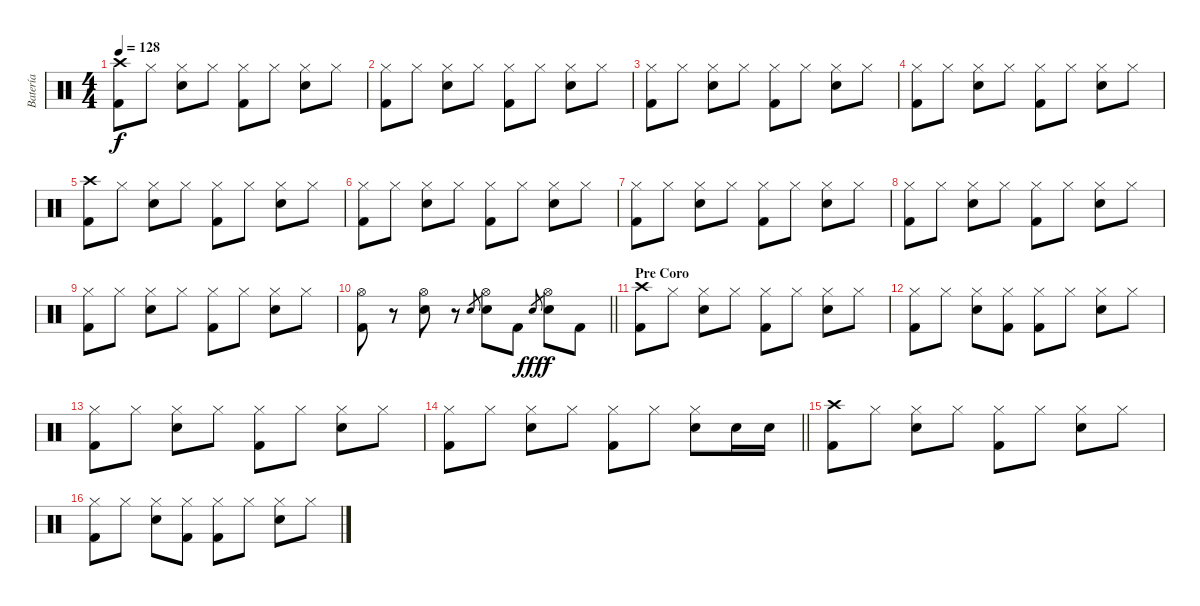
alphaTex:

\track ("Batería" "Batería") {instrument percussion}
\staff {score}
\articulation defaults
\ts (4 4)
\tempo 128
\clef neutral
\ks c
("Crash high (hit)" "Kick (hit) 2").8{dy f} "Hi-Hat (closed)".8 ("Hi-Hat (closed)" "Electric Snare (hit)").8 "Hi-Hat (closed)".8 ("Hi-Hat (closed)" "Kick (hit) 2").8 "Hi-Hat (closed)".8 ("Hi-Hat (closed)" "Electric Snare (hit)").8 "Hi-Hat (closed)".8 |
("Hi-Hat (closed)" "Kick (hit) 2").8 "Hi-Hat (closed)".8 ("Hi-Hat (closed)" "Electric Snare (hit)").8 "Hi-Hat (closed)".8 ("Hi-Hat (closed)" "Kick (hit) 2").8 "Hi-Hat (closed)".8 ("Hi-Hat (closed)" "Electric Snare (hit)").8 "Hi-Hat (closed)".8 |
("Hi-Hat (closed)" "Kick (hit) 2").8 "Hi-Hat (closed)".8 ("Hi-Hat (closed)" "Electric Snare (hit)").8 "Hi-Hat (closed)".8 ("Hi-Hat (closed)" "Kick (hit) 2").8 "Hi-Hat (closed)".8 ("Hi-Hat (closed)" "Electric Snare (hit)").8 "Hi-Hat (closed)".8 |
("Hi-Hat (closed)" "Kick (hit) 2").8 "Hi-Hat (closed)".8 ("Hi-Hat (closed)" "Electric Snare (hit)").8 "Hi-Hat (closed)".8 ("Hi-Hat (closed)" "Kick (hit) 2").8 "Hi-Hat (closed)".8 ("Hi-Hat (closed)" "Electric Snare (hit)").8 "Hi-Hat (closed)".8 |
("Crash high (hit)" "Kick (hit) 2").8 "Hi-Hat (closed)".8 ("Hi-Hat (closed)" "Electric Snare (hit)").8 "Hi-Hat (closed)".8 ("Hi-Hat (closed)" "Kick (hit) 2").8 "Hi-Hat (closed)".8 ("Hi-Hat (closed)" "Electric Snare (hit)").8 "Hi-Hat (closed)".8 |
("Hi-Hat (closed)" "Kick (hit) 2").8 "Hi-Hat (closed)".8 ("Hi-Hat (closed)" "Electric Snare (hit)").8 "Hi-Hat (closed)".8 ("Hi-Hat (closed)" "Kick (hit) 2").8 "Hi-Hat (closed)".8 ("Hi-Hat (closed)" "Electric Snare (hit)").8 "Hi-Hat (closed)".8 |
("Hi-Hat (closed)" "Kick (hit) 2").8 "Hi-Hat (closed)".8 ("Hi-Hat (closed)" "Electric Snare (hit)").8 "Hi-Hat (closed)".8 ("Hi-Hat (closed)" "Kick (hit) 2").8 "Hi-Hat (closed)".8 ("Hi-Hat (closed)" "Electric Snare (hit)").8 "Hi-Hat (closed)".8 |
("Hi-Hat (closed)" "Kick (hit) 2").8 "Hi-Hat (closed)".8 ("Hi-Hat (closed)" "Electric Snare (hit)").8 "Hi-Hat (closed)".8 ("Hi-Hat (closed)" "Kick (hit) 2").8 "Hi-Hat (closed)".8 ("Hi-Hat (closed)" "Electric Snare (hit)").8 "Hi-Hat (closed)".8 |
("Hi-Hat (closed)" "Kick (hit) 2").8 "Hi-Hat (closed)".8 ("Hi-Hat (closed)" "Electric Snare (hit)").8 "Hi-Hat (closed)".8 ("Hi-Hat (closed)" "Kick (hit) 2").8 "Hi-Hat (closed)".8 ("Hi-Hat (closed)" "Electric Snare (hit)").8 "Hi-Hat (closed)".8 |
\barLineRight lightlight
("Hi-Hat (open)" "Kick (hit) 2").8 r.8 ("Hi-Hat (open)" "Electric Snare (hit)").8 r.8 "Electric Snare (hit)".8{gr} ("Hi-Hat (open)" "Electric Snare (hit)").8 "Kick (hit) 2".8 "Electric Snare (hit)".8{gr dy fff} ("Hi-Hat (open)" "Electric Snare (hit)").8{dy f} "Kick (hit) 2".8 |
\section ("" "Pre Coro")
("Kick (hit) 2" "Crash high (hit)").8 "Hi-Hat (closed)".8 ("Hi-Hat (closed)" "Electric Snare (hit)").8 "Hi-Hat (closed)".8 ("Hi-Hat (closed)" "Kick (hit) 2").8 "Hi-Hat (closed)".8 ("Hi-Hat (closed)" "Electric Snare (hit)").8 "Hi-Hat (closed)".8 |
("Hi-Hat (closed)" "Kick (hit) 2").8 "Hi-Hat (closed)".8 ("Hi-Hat (closed)" "Electric Snare (hit)").8 ("Hi-Hat (closed)" "Kick (hit) 2").8 ("Hi-Hat (closed)" "Kick (hit) 2").8 "Hi-Hat (closed)".8 ("Hi-Hat (closed)" "Electric Snare (hit)").8 "Hi-Hat (closed)".8 |
("Hi-Hat (closed)" "Kick (hit) 2").8 "Hi-Hat (closed)".8 ("Hi-Hat (closed)" "Electric Snare (hit)").8 "Hi-Hat (closed)".8 ("Hi-Hat (closed)" "Kick (hit) 2").8 "Hi-Hat (closed)".8 ("Hi-Hat (closed)" "Electric Snare (hit)").8 "Hi-Hat (closed)".8 |
\barLineRight lightlight
("Hi-Hat (closed)" "Kick (hit) 2").8 "Hi-Hat (closed)".8 ("Hi-Hat (closed)" "Electric Snare (hit)").8 "Hi-Hat (closed)".8 ("Hi-Hat (closed)" "Kick (hit) 2").8 "Hi-Hat (closed)".8 ("Hi-Hat (closed)" "Electric Snare (hit)").8 "Electric Snare (hit)".16 "Electric Snare (hit)".16 |
("Kick (hit) 2" "Crash high (hit)").8 "Hi-Hat (closed)".8 ("Hi-Hat (closed)" "Electric Snare (hit)").8 "Hi-Hat (closed)".8 ("Hi-Hat (closed)" "Kick (hit) 2").8 "Hi-Hat (closed)".8 ("Hi-Hat (closed)" "Electric Snare (hit)").8 "Hi-Hat (closed)".8 |
("Hi-Hat (closed)" "Kick (hit) 2").8 "Hi-Hat (closed)".8 ("Hi-Hat (closed)" "Electric Snare (hit)").8 ("Hi-Hat (closed)" "Kick (hit) 2").8 ("Hi-Hat (closed)" "Kick (hit) 2").8 "Hi-Hat (closed)".8 ("Hi-Hat (closed)" "Electric Snare (hit)").8 "Hi-Hat (closed)".8
